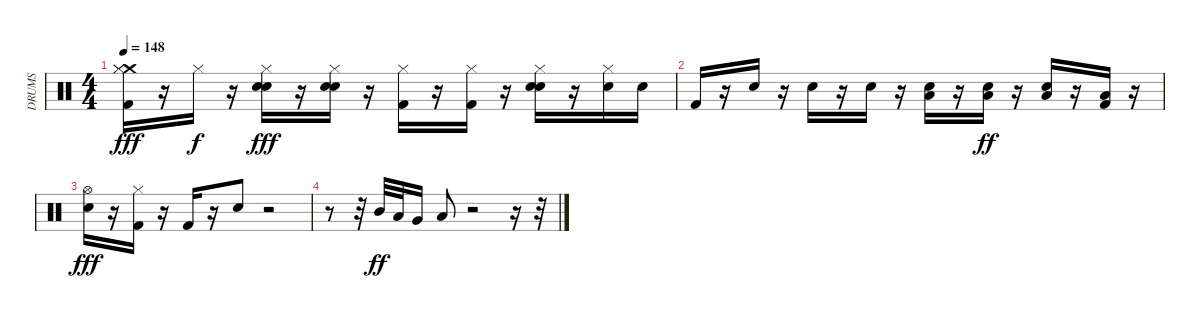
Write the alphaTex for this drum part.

\track ("DRUMS" "DRUMS") {instrument percussion}
\staff {score}
\articulation defaults
\ts (4 4)
\tempo 148
\clef neutral
\ks c
("Crash medium (hit)" "Hi-Hat (closed)" "Kick (hit) 2" "Hi-Hat (closed)").16{dy fff} r.16 "Hi-Hat (closed)".16{dy f} r.16 ("Hi-Hat (closed)" "Hand Clap (hit)" "Snare (hit) 2").16{dy fff} r.16 ("Snare (hit) 2" "Hand Clap (hit)" "Hi-Hat (closed)").16 r.16 ("Hi-Hat (closed)" "Kick (hit) 2").16 r.16 ("Hi-Hat (closed)" "Kick (hit) 2").16 r.16 ("Hi-Hat (closed)" "Hand Clap (hit)" "Snare (hit) 2").16 r.16 ("Hi-Hat (closed)" "Snare (hit) 2").16 "Snare (hit) 2".16 |
"Kick (hit) 2".16 r.16 "Snare (hit) 2".16 r.16 "Snare (hit) 2".16 r.16 "Snare (hit) 2".16 r.16 ("Low Floor Tom (hit)" "Snare (hit) 2").16 r.16 ("Snare (hit) 2" "Low Floor Tom (hit)").16{dy ff} r.16 ("Snare (hit) 2" "Low Floor Tom (hit)").16 r.16 ("Kick (hit) 2" "Low Floor Tom (hit)").16 r.16 |
("Hi-Hat (open)" "Snare (hit) 2").16{dy fff} r.16 ("Hi-Hat (closed)" "Kick (hit) 2").16 r.16 "Kick (hit) 2".16 r.16 "Snare (hit) 2".8 r.2 |
r.8 r.32 "Mid Tom (hit)".32{dy ff} "Low Tom (hit)".32 "Very Low Tom (hit)".16 "Low Floor Tom (hit)".8 r.2 r.16 r.32
